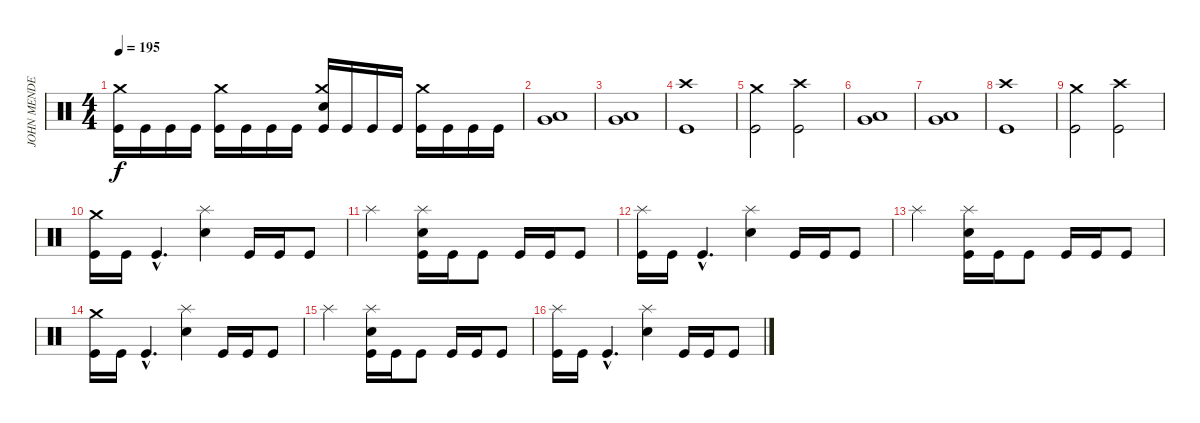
\track ("JOHN MENDESSSSSSS" "JOHN MENDE") {instrument percussion}
\staff {score}
\articulation defaults
\ts (4 4)
\tempo 195
\clef neutral
\ks c
("Kick (hit)" "Crash medium (hit)").16{dy f} "Kick (hit)".16 "Kick (hit)".16 "Kick (hit)".16 ("Kick (hit)" "Crash medium (hit)").16 "Kick (hit)".16 "Kick (hit)".16 "Kick (hit)".16 ("Kick (hit)" "Snare (hit) 2" "Crash medium (hit)").16 "Kick (hit)".16 "Kick (hit)".16 "Kick (hit)".16 ("Kick (hit)" "Crash medium (hit)").16 "Kick (hit)".16 "Kick (hit)".16 "Kick (hit)".16 |
("Low Floor Tom (hit)" "Very Low Tom (hit)").1 |
("Low Floor Tom (hit)" "Very Low Tom (hit)").1 |
("Kick (hit)" "Crash high (hit)").1 |
("Kick (hit)" "Crash medium (hit)").2 ("Kick (hit)" "Crash high (hit)").2 |
("Low Floor Tom (hit)" "Very Low Tom (hit)").1 |
("Low Floor Tom (hit)" "Very Low Tom (hit)").1 |
("Kick (hit)" "Crash high (hit)").1 |
("Kick (hit)" "Crash medium (hit)").2 ("Kick (hit)" "Crash high (hit)").2 |
("Kick (hit)" "Crash medium (hit)").16 "Kick (hit)".16 "Kick (hit)"{hac}.4{d} ("Snare (hit) 2" "Splash (hit)").4 "Kick (hit)".16 "Kick (hit)".16 "Kick (hit)".8 |
"Splash (hit)".2 ("Kick (hit)" "Snare (hit) 2" "Splash (hit)").16 "Kick (hit)".16 "Kick (hit)".8 "Kick (hit)".16 "Kick (hit)".16 "Kick (hit)".8 |
("Kick (hit)" "Splash (hit)").16 "Kick (hit)".16 "Kick (hit)"{hac}.4{d} ("Snare (hit) 2" "Splash (hit)").4 "Kick (hit)".16 "Kick (hit)".16 "Kick (hit)".8 |
"Splash (hit)".2 ("Kick (hit)" "Snare (hit) 2" "Splash (hit)").16 "Kick (hit)".16 "Kick (hit)".8 "Kick (hit)".16 "Kick (hit)".16 "Kick (hit)".8 |
("Kick (hit)" "Crash medium (hit)").16 "Kick (hit)".16 "Kick (hit)"{hac}.4{d} ("Snare (hit) 2" "Splash (hit)").4 "Kick (hit)".16 "Kick (hit)".16 "Kick (hit)".8 |
"Splash (hit)".2 ("Kick (hit)" "Snare (hit) 2" "Splash (hit)").16 "Kick (hit)".16 "Kick (hit)".8 "Kick (hit)".16 "Kick (hit)".16 "Kick (hit)".8 |
("Kick (hit)" "Splash (hit)").16 "Kick (hit)".16 "Kick (hit)"{hac}.4{d} ("Snare (hit) 2" "Splash (hit)").4 "Kick (hit)".16 "Kick (hit)".16 "Kick (hit)".8
